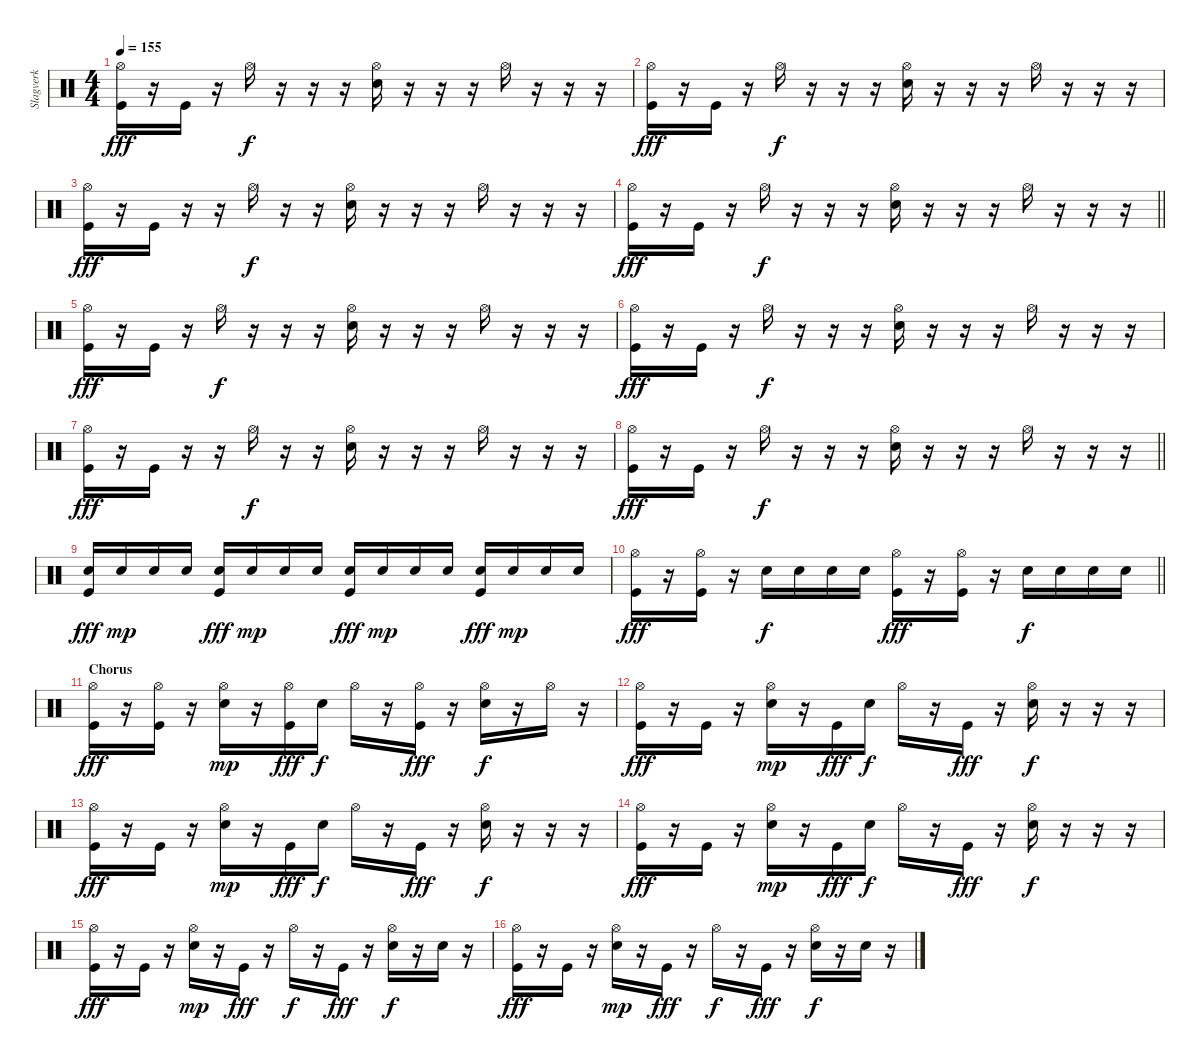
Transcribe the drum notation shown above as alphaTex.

\track ("Slagverk" "Slagverk") {instrument percussion}
\staff {score}
\articulation defaults
\ts (4 4)
\tempo 155
\clef neutral
\ks c
("Hi-Hat (open)" "Kick (hit)").16{dy fff} r.16 "Kick (hit)".16 r.16 "Hi-Hat (open)".16{dy f} r.16 r.16 r.16 ("Hi-Hat (open)" "Electric Snare (hit)").16 r.16 r.16 r.16 "Hi-Hat (open)".16 r.16 r.16 r.16 |
("Hi-Hat (open)" "Kick (hit)").16{dy fff} r.16 "Kick (hit)".16 r.16 "Hi-Hat (open)".16{dy f} r.16 r.16 r.16 ("Hi-Hat (open)" "Electric Snare (hit)").16 r.16 r.16 r.16 "Hi-Hat (open)".16 r.16 r.16 r.16 |
("Hi-Hat (open)" "Kick (hit)").16{dy fff} r.16 "Kick (hit)".16 r.16 r.16 "Hi-Hat (open)".16{dy f} r.16 r.16 ("Hi-Hat (open)" "Electric Snare (hit)").16 r.16 r.16 r.16 "Hi-Hat (open)".16 r.16 r.16 r.16 |
\barLineRight lightlight
("Hi-Hat (open)" "Kick (hit)").16{dy fff} r.16 "Kick (hit)".16 r.16 "Hi-Hat (open)".16{dy f} r.16 r.16 r.16 ("Hi-Hat (open)" "Electric Snare (hit)").16 r.16 r.16 r.16 "Hi-Hat (open)".16 r.16 r.16 r.16 |
("Hi-Hat (open)" "Kick (hit)").16{dy fff} r.16 "Kick (hit)".16 r.16 "Hi-Hat (open)".16{dy f} r.16 r.16 r.16 ("Hi-Hat (open)" "Electric Snare (hit)").16 r.16 r.16 r.16 "Hi-Hat (open)".16 r.16 r.16 r.16 |
("Hi-Hat (open)" "Kick (hit)").16{dy fff} r.16 "Kick (hit)".16 r.16 "Hi-Hat (open)".16{dy f} r.16 r.16 r.16 ("Hi-Hat (open)" "Electric Snare (hit)").16 r.16 r.16 r.16 "Hi-Hat (open)".16 r.16 r.16 r.16 |
("Hi-Hat (open)" "Kick (hit)").16{dy fff} r.16 "Kick (hit)".16 r.16 r.16 "Hi-Hat (open)".16{dy f} r.16 r.16 ("Hi-Hat (open)" "Electric Snare (hit)").16 r.16 r.16 r.16 "Hi-Hat (open)".16 r.16 r.16 r.16 |
\barLineRight lightlight
("Hi-Hat (open)" "Kick (hit)").16{dy fff} r.16 "Kick (hit)".16 r.16 "Hi-Hat (open)".16{dy f} r.16 r.16 r.16 ("Hi-Hat (open)" "Electric Snare (hit)").16 r.16 r.16 r.16 "Hi-Hat (open)".16 r.16 r.16 r.16 |
("Electric Snare (hit)" "Kick (hit)").16{dy fff} "Electric Snare (hit)".16{dy mp} "Electric Snare (hit)".16 "Electric Snare (hit)".16 ("Electric Snare (hit)" "Kick (hit)").16{dy fff} "Electric Snare (hit)".16{dy mp} "Electric Snare (hit)".16 "Electric Snare (hit)".16 ("Electric Snare (hit)" "Kick (hit)").16{dy fff} "Electric Snare (hit)".16{dy mp} "Electric Snare (hit)".16 "Electric Snare (hit)".16 ("Electric Snare (hit)" "Kick (hit)").16{dy fff} "Electric Snare (hit)".16{dy mp} "Electric Snare (hit)".16 "Electric Snare (hit)".16 |
\barLineRight lightlight
("Hi-Hat (open)" "Kick (hit)").16{dy fff} r.16 ("Hi-Hat (open)" "Kick (hit)").16 r.16 "Electric Snare (hit)".16{dy f} "Electric Snare (hit)".16 "Electric Snare (hit)".16 "Electric Snare (hit)".16 ("Hi-Hat (open)" "Kick (hit)").16{dy fff} r.16 ("Hi-Hat (open)" "Kick (hit)").16 r.16 "Electric Snare (hit)".16{dy f} "Electric Snare (hit)".16 "Electric Snare (hit)".16 "Electric Snare (hit)".16 |
\section ("" "Chorus")
("Hi-Hat (open)" "Kick (hit)").16{dy fff} r.16 ("Hi-Hat (open)" "Kick (hit)").16 r.16 ("Hi-Hat (open)" "Electric Snare (hit)").16{dy mp} r.16 ("Hi-Hat (open)" "Kick (hit)").16{dy fff} "Electric Snare (hit)".16{dy f} "Hi-Hat (open)".16 r.16 ("Hi-Hat (open)" "Kick (hit)").16{dy fff} r.16 ("Hi-Hat (open)" "Electric Snare (hit)").16{dy f} r.16 "Hi-Hat (open)".16 r.16 |
("Hi-Hat (open)" "Kick (hit)").16{dy fff} r.16 "Kick (hit)".16 r.16 ("Hi-Hat (open)" "Electric Snare (hit)").16{dy mp} r.16 "Kick (hit)".16{dy fff} "Electric Snare (hit)".16{dy f} "Hi-Hat (open)".16 r.16 "Kick (hit)".16{dy fff} r.16 ("Hi-Hat (open)" "Electric Snare (hit)").16{dy f} r.16 r.16 r.16 |
("Hi-Hat (open)" "Kick (hit)").16{dy fff} r.16 "Kick (hit)".16 r.16 ("Hi-Hat (open)" "Electric Snare (hit)").16{dy mp} r.16 "Kick (hit)".16{dy fff} "Electric Snare (hit)".16{dy f} "Hi-Hat (open)".16 r.16 "Kick (hit)".16{dy fff} r.16 ("Hi-Hat (open)" "Electric Snare (hit)").16{dy f} r.16 r.16 r.16 |
("Hi-Hat (open)" "Kick (hit)").16{dy fff} r.16 "Kick (hit)".16 r.16 ("Hi-Hat (open)" "Electric Snare (hit)").16{dy mp} r.16 "Kick (hit)".16{dy fff} "Electric Snare (hit)".16{dy f} "Hi-Hat (open)".16 r.16 "Kick (hit)".16{dy fff} r.16 ("Hi-Hat (open)" "Electric Snare (hit)").16{dy f} r.16 r.16 r.16 |
("Hi-Hat (open)" "Kick (hit)").16{dy fff} r.16 "Kick (hit)".16 r.16 ("Hi-Hat (open)" "Electric Snare (hit)").16{dy mp} r.16 "Kick (hit)".16{dy fff} r.16 "Hi-Hat (open)".16{dy f} r.16 "Kick (hit)".16{dy fff} r.16 ("Hi-Hat (open)" "Electric Snare (hit)").16{dy f} r.16 "Electric Snare (hit)".16 r.16 |
("Hi-Hat (open)" "Kick (hit)").16{dy fff} r.16 "Kick (hit)".16 r.16 ("Hi-Hat (open)" "Electric Snare (hit)").16{dy mp} r.16 "Kick (hit)".16{dy fff} r.16 "Hi-Hat (open)".16{dy f} r.16 "Kick (hit)".16{dy fff} r.16 ("Hi-Hat (open)" "Electric Snare (hit)").16{dy f} r.16 "Electric Snare (hit)".16 r.16
